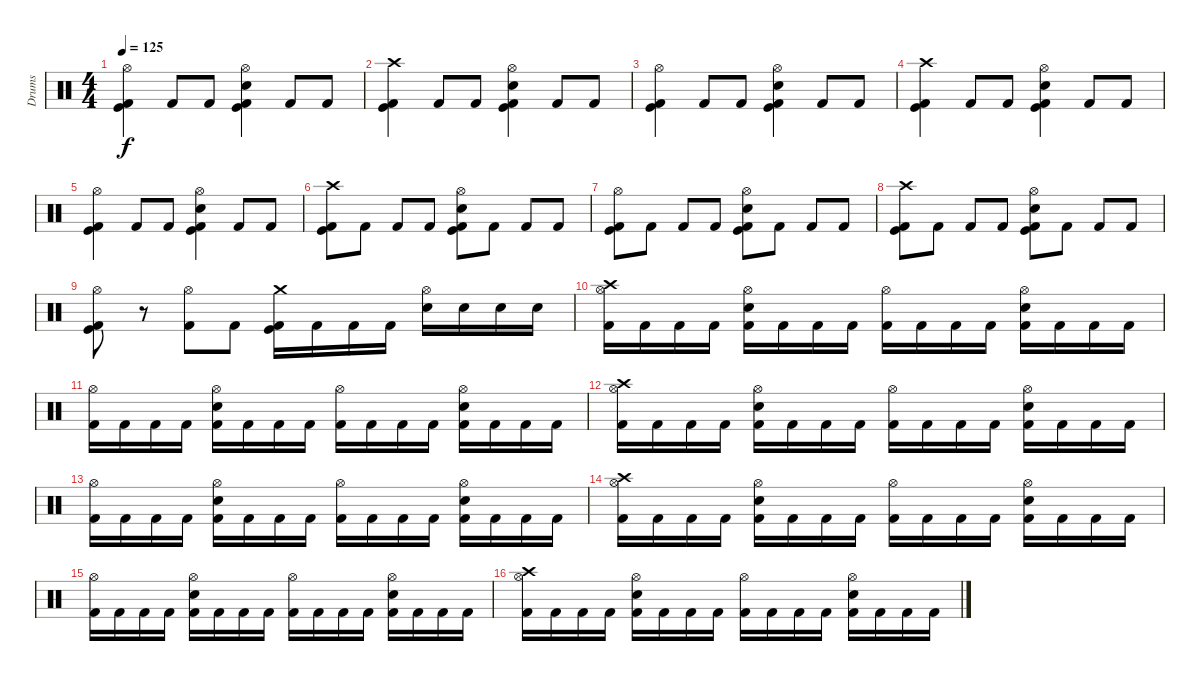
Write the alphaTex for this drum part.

\track ("Drums" "Drums") {instrument percussion}
\staff {score}
\articulation defaults
\ts (4 4)
\tempo 125
\clef neutral
\ks c
("Hi-Hat (open)" "Kick (hit)" "Kick (hit) 2").4{dy f} "Kick (hit) 2".8 "Kick (hit) 2".8 ("Hi-Hat (open)" "Electric Snare (hit)" "Kick (hit)" "Kick (hit) 2").4 "Kick (hit) 2".8 "Kick (hit) 2".8 |
("Crash high (hit)" "Kick (hit)" "Kick (hit) 2").4 "Kick (hit) 2".8 "Kick (hit) 2".8 ("Hi-Hat (open)" "Electric Snare (hit)" "Kick (hit)" "Kick (hit) 2").4 "Kick (hit) 2".8 "Kick (hit) 2".8 |
("Hi-Hat (open)" "Kick (hit)" "Kick (hit) 2").4 "Kick (hit) 2".8 "Kick (hit) 2".8 ("Hi-Hat (open)" "Electric Snare (hit)" "Kick (hit)" "Kick (hit) 2").4 "Kick (hit) 2".8 "Kick (hit) 2".8 |
("Crash high (hit)" "Kick (hit)" "Kick (hit) 2").4 "Kick (hit) 2".8 "Kick (hit) 2".8 ("Hi-Hat (open)" "Electric Snare (hit)" "Kick (hit)" "Kick (hit) 2").4 "Kick (hit) 2".8 "Kick (hit) 2".8 |
("Hi-Hat (open)" "Kick (hit)" "Kick (hit) 2").4 "Kick (hit) 2".8 "Kick (hit) 2".8 ("Hi-Hat (open)" "Electric Snare (hit)" "Kick (hit)" "Kick (hit) 2").4 "Kick (hit) 2".8 "Kick (hit) 2".8 |
("Crash high (hit)" "Kick (hit)" "Kick (hit) 2").8 "Kick (hit) 2".8 "Kick (hit) 2".8 "Kick (hit) 2".8 ("Hi-Hat (open)" "Electric Snare (hit)" "Kick (hit)" "Kick (hit) 2").8 "Kick (hit) 2".8 "Kick (hit) 2".8 "Kick (hit) 2".8 |
("Hi-Hat (open)" "Kick (hit)" "Kick (hit) 2").8 "Kick (hit) 2".8 "Kick (hit) 2".8 "Kick (hit) 2".8 ("Hi-Hat (open)" "Electric Snare (hit)" "Kick (hit)" "Kick (hit) 2").8 "Kick (hit) 2".8 "Kick (hit) 2".8 "Kick (hit) 2".8 |
("Crash high (hit)" "Kick (hit)" "Kick (hit) 2").8 "Kick (hit) 2".8 "Kick (hit) 2".8 "Kick (hit) 2".8 ("Hi-Hat (open)" "Electric Snare (hit)" "Kick (hit)" "Kick (hit) 2").8 "Kick (hit) 2".8 "Kick (hit) 2".8 "Kick (hit) 2".8 |
("Hi-Hat (open)" "Kick (hit)" "Kick (hit) 2").8 r.8 ("Hi-Hat (open)" "Kick (hit) 2").8 "Kick (hit) 2".8 ("Crash medium (hit)" "Kick (hit)" "Kick (hit) 2").16 "Kick (hit) 2".16 "Kick (hit) 2".16 "Kick (hit) 2".16 ("Electric Snare (hit)" "Hi-Hat (open)").16 "Electric Snare (hit)".16 "Electric Snare (hit)".16 "Electric Snare (hit)".16 |
("Kick (hit) 2" "Hi-Hat (open)" "Crash high (hit)").16 "Kick (hit) 2".16 "Kick (hit) 2".16 "Kick (hit) 2".16 ("Kick (hit) 2" "Hi-Hat (open)" "Electric Snare (hit)").16 "Kick (hit) 2".16 "Kick (hit) 2".16 "Kick (hit) 2".16 ("Kick (hit) 2" "Hi-Hat (open)").16 "Kick (hit) 2".16 "Kick (hit) 2".16 "Kick (hit) 2".16 ("Kick (hit) 2" "Hi-Hat (open)" "Electric Snare (hit)").16 "Kick (hit) 2".16 "Kick (hit) 2".16 "Kick (hit) 2".16 |
("Kick (hit) 2" "Hi-Hat (open)").16 "Kick (hit) 2".16 "Kick (hit) 2".16 "Kick (hit) 2".16 ("Kick (hit) 2" "Hi-Hat (open)" "Electric Snare (hit)").16 "Kick (hit) 2".16 "Kick (hit) 2".16 "Kick (hit) 2".16 ("Kick (hit) 2" "Hi-Hat (open)").16 "Kick (hit) 2".16 "Kick (hit) 2".16 "Kick (hit) 2".16 ("Kick (hit) 2" "Hi-Hat (open)" "Electric Snare (hit)").16 "Kick (hit) 2".16 "Kick (hit) 2".16 "Kick (hit) 2".16 |
("Kick (hit) 2" "Hi-Hat (open)" "Crash high (hit)").16 "Kick (hit) 2".16 "Kick (hit) 2".16 "Kick (hit) 2".16 ("Kick (hit) 2" "Hi-Hat (open)" "Electric Snare (hit)").16 "Kick (hit) 2".16 "Kick (hit) 2".16 "Kick (hit) 2".16 ("Kick (hit) 2" "Hi-Hat (open)").16 "Kick (hit) 2".16 "Kick (hit) 2".16 "Kick (hit) 2".16 ("Kick (hit) 2" "Hi-Hat (open)" "Electric Snare (hit)").16 "Kick (hit) 2".16 "Kick (hit) 2".16 "Kick (hit) 2".16 |
("Kick (hit) 2" "Hi-Hat (open)").16 "Kick (hit) 2".16 "Kick (hit) 2".16 "Kick (hit) 2".16 ("Kick (hit) 2" "Hi-Hat (open)" "Electric Snare (hit)").16 "Kick (hit) 2".16 "Kick (hit) 2".16 "Kick (hit) 2".16 ("Kick (hit) 2" "Hi-Hat (open)").16 "Kick (hit) 2".16 "Kick (hit) 2".16 "Kick (hit) 2".16 ("Kick (hit) 2" "Hi-Hat (open)" "Electric Snare (hit)").16 "Kick (hit) 2".16 "Kick (hit) 2".16 "Kick (hit) 2".16 |
("Kick (hit) 2" "Hi-Hat (open)" "Crash high (hit)").16 "Kick (hit) 2".16 "Kick (hit) 2".16 "Kick (hit) 2".16 ("Kick (hit) 2" "Hi-Hat (open)" "Electric Snare (hit)").16 "Kick (hit) 2".16 "Kick (hit) 2".16 "Kick (hit) 2".16 ("Kick (hit) 2" "Hi-Hat (open)").16 "Kick (hit) 2".16 "Kick (hit) 2".16 "Kick (hit) 2".16 ("Kick (hit) 2" "Hi-Hat (open)" "Electric Snare (hit)").16 "Kick (hit) 2".16 "Kick (hit) 2".16 "Kick (hit) 2".16 |
("Kick (hit) 2" "Hi-Hat (open)").16 "Kick (hit) 2".16 "Kick (hit) 2".16 "Kick (hit) 2".16 ("Kick (hit) 2" "Hi-Hat (open)" "Electric Snare (hit)").16 "Kick (hit) 2".16 "Kick (hit) 2".16 "Kick (hit) 2".16 ("Kick (hit) 2" "Hi-Hat (open)").16 "Kick (hit) 2".16 "Kick (hit) 2".16 "Kick (hit) 2".16 ("Kick (hit) 2" "Hi-Hat (open)" "Electric Snare (hit)").16 "Kick (hit) 2".16 "Kick (hit) 2".16 "Kick (hit) 2".16 |
("Kick (hit) 2" "Hi-Hat (open)" "Crash high (hit)").16 "Kick (hit) 2".16 "Kick (hit) 2".16 "Kick (hit) 2".16 ("Kick (hit) 2" "Hi-Hat (open)" "Electric Snare (hit)").16 "Kick (hit) 2".16 "Kick (hit) 2".16 "Kick (hit) 2".16 ("Kick (hit) 2" "Hi-Hat (open)").16 "Kick (hit) 2".16 "Kick (hit) 2".16 "Kick (hit) 2".16 ("Kick (hit) 2" "Hi-Hat (open)" "Electric Snare (hit)").16 "Kick (hit) 2".16 "Kick (hit) 2".16 "Kick (hit) 2".16
